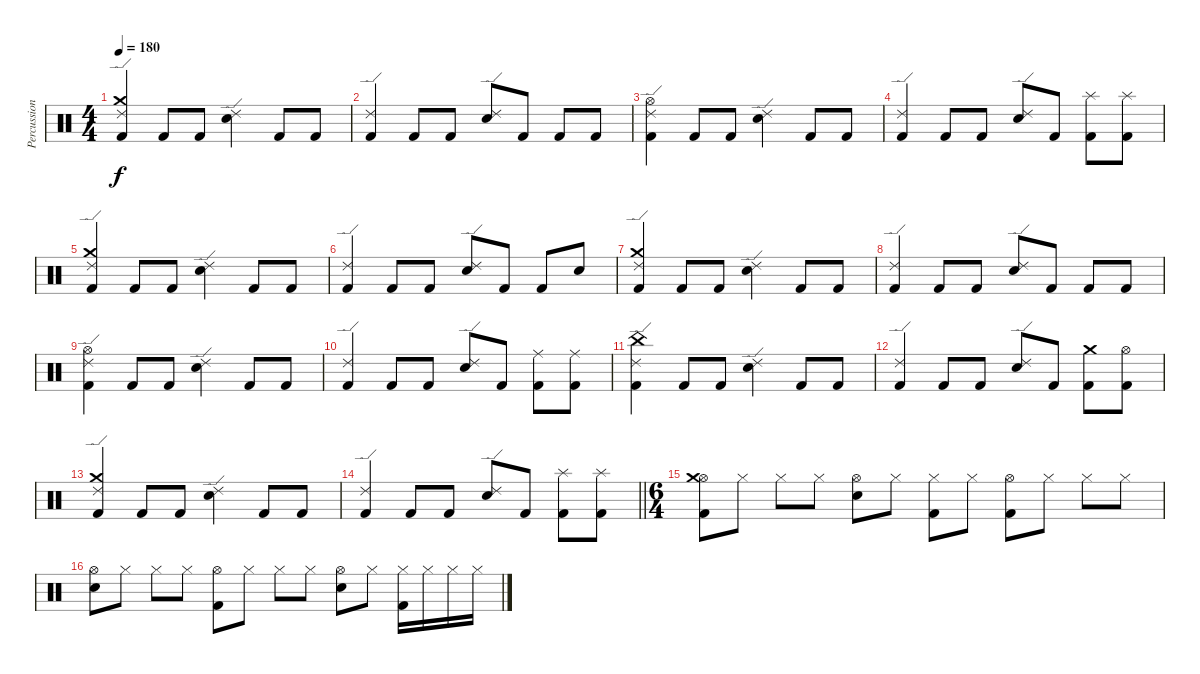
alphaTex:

\track ("Percussions" "Percussion") {instrument percussion}
\staff {score}
\articulation defaults
\ts (4 4)
\tempo 180
\clef neutral
\ks c
("Ride (edge) 2" "Crash medium (hit)" "Kick (hit) 2").4{dy f} "Kick (hit) 2".8 "Kick (hit) 2".8 ("Ride (edge) 2" "Electric Snare (hit)").4 "Kick (hit) 2".8 "Kick (hit) 2".8 |
("Ride (edge) 2" "Kick (hit) 2").4 "Kick (hit) 2".8 "Kick (hit) 2".8 ("Ride (edge) 2" "Electric Snare (hit)").8 "Kick (hit) 2".8 "Kick (hit) 2".8 "Kick (hit) 2".8 |
("Ride (edge) 2" "Hi-Hat (open)" "Kick (hit) 2").4 "Kick (hit) 2".8 "Kick (hit) 2".8 ("Ride (edge) 2" "Electric Snare (hit)").4 "Kick (hit) 2".8 "Kick (hit) 2".8 |
("Ride (edge) 2" "Kick (hit) 2").4 "Kick (hit) 2".8 "Kick (hit) 2".8 ("Ride (edge) 2" "Electric Snare (hit)").8 "Kick (hit) 2".8 ("Splash (hit)" "Kick (hit) 2").8 ("Splash (hit)" "Kick (hit) 2").8 |
("Ride (edge) 2" "Crash medium (hit)" "Kick (hit) 2").4 "Kick (hit) 2".8 "Kick (hit) 2".8 ("Ride (edge) 2" "Electric Snare (hit)").4 "Kick (hit) 2".8 "Kick (hit) 2".8 |
("Ride (edge) 2" "Kick (hit) 2").4 "Kick (hit) 2".8 "Kick (hit) 2".8 ("Ride (edge) 2" "Electric Snare (hit)").8 "Kick (hit) 2".8 "Kick (hit) 2".8 "Electric Snare (hit)".8 |
("Ride (edge) 2" "Crash medium (hit)" "Kick (hit) 2").4 "Kick (hit) 2".8 "Kick (hit) 2".8 ("Ride (edge) 2" "Electric Snare (hit)").4 "Kick (hit) 2".8 "Kick (hit) 2".8 |
("Ride (edge) 2" "Kick (hit) 2").4 "Kick (hit) 2".8 "Kick (hit) 2".8 ("Ride (edge) 2" "Electric Snare (hit)").8 "Kick (hit) 2".8 "Kick (hit) 2".8 "Kick (hit) 2".8 |
("Ride (edge) 2" "Hi-Hat (open)" "Kick (hit) 2").4 "Kick (hit) 2".8 "Kick (hit) 2".8 ("Ride (edge) 2" "Electric Snare (hit)").4 "Kick (hit) 2".8 "Kick (hit) 2".8 |
("Ride (edge) 2" "Kick (hit) 2").4 "Kick (hit) 2".8 "Kick (hit) 2".8 ("Ride (edge) 2" "Electric Snare (hit)").8 "Kick (hit) 2".8 ("Ride (middle)" "Kick (hit) 2").8 ("Ride (middle)" "Kick (hit) 2").8 |
("Ride (edge) 2" "China (hit)" "Kick (hit) 2").4 "Kick (hit) 2".8 "Kick (hit) 2".8 ("Ride (edge) 2" "Electric Snare (hit)").4 "Kick (hit) 2".8 "Kick (hit) 2".8 |
("Ride (edge) 2" "Kick (hit) 2").4 "Kick (hit) 2".8 "Kick (hit) 2".8 ("Ride (edge) 2" "Electric Snare (hit)").8 "Kick (hit) 2".8 ("Crash medium (hit)" "Kick (hit) 2").8 ("Hi-Hat (open)" "Kick (hit) 2").8 |
("Ride (edge) 2" "Crash medium (hit)" "Kick (hit) 2").4 "Kick (hit) 2".8 "Kick (hit) 2".8 ("Ride (edge) 2" "Electric Snare (hit)").4 "Kick (hit) 2".8 "Kick (hit) 2".8 |
\barLineRight lightlight
("Ride (edge) 2" "Kick (hit) 2").4 "Kick (hit) 2".8 "Kick (hit) 2".8 ("Ride (edge) 2" "Electric Snare (hit)").8 "Kick (hit) 2".8 ("Splash (hit)" "Kick (hit) 2").8 ("Splash (hit)" "Kick (hit) 2").8 |
\ts (6 4)
("Hi-Hat (open)" "Crash medium (hit)" "Kick (hit) 2").8 "Hi-Hat (closed)".8 "Hi-Hat (closed)".8 "Hi-Hat (closed)".8 ("Hi-Hat (open)" "Electric Snare (hit)").8 "Hi-Hat (closed)".8 ("Hi-Hat (closed)" "Kick (hit) 2").8 "Hi-Hat (closed)".8 ("Hi-Hat (open)" "Kick (hit) 2").8 "Hi-Hat (closed)".8 "Hi-Hat (closed)".8 "Hi-Hat (closed)".8 |
("Hi-Hat (open)" "Electric Snare (hit)").8 "Hi-Hat (closed)".8 "Hi-Hat (closed)".8 "Hi-Hat (closed)".8 ("Hi-Hat (open)" "Kick (hit) 2").8 "Hi-Hat (closed)".8 "Hi-Hat (closed)".8 "Hi-Hat (closed)".8 ("Hi-Hat (open)" "Electric Snare (hit)").8 "Hi-Hat (closed)".8 ("Hi-Hat (closed)" "Kick (hit) 2").16 "Hi-Hat (closed)".16 "Hi-Hat (closed)".16 "Hi-Hat (closed)".16
